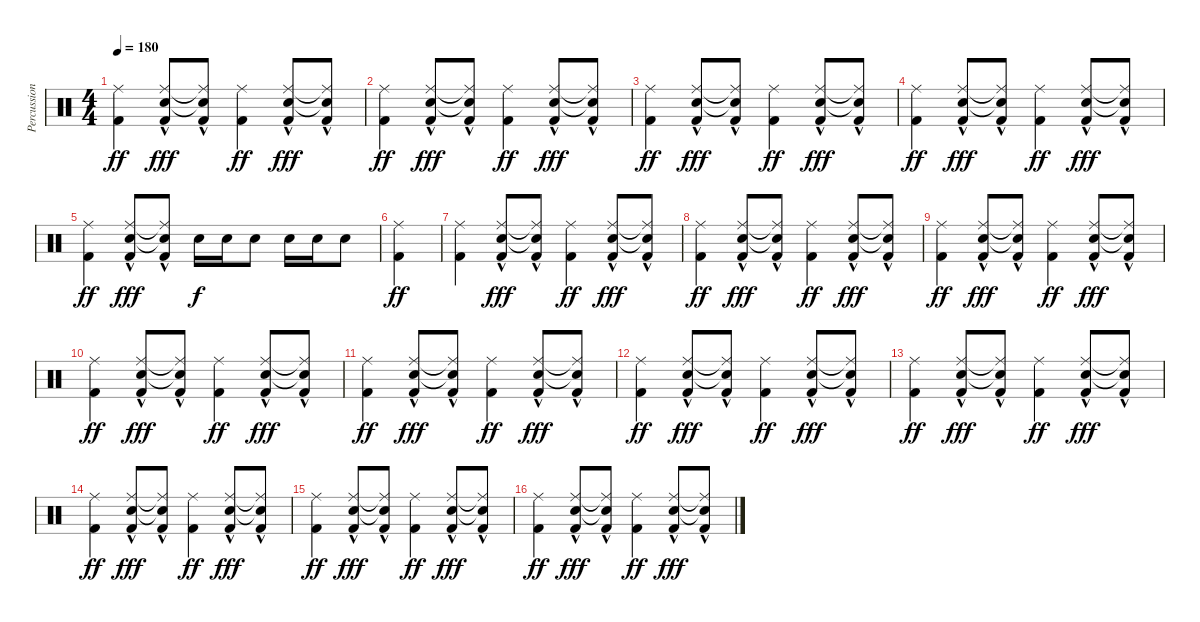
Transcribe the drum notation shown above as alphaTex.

\track ("Percussion" "Percussion") {instrument percussion}
\staff {score}
\articulation defaults
\ts (4 4)
\tempo 180
\clef neutral
\ks c
("Kick (hit) 2" "Ride (middle)").4{dy ff} ("Electric Snare (hit)" "Ride (middle)" "Kick (hit) 2"{hac}).8{dy fff} ("Electric Snare (hit)"{t} "Ride (middle)"{t} "Kick (hit) 2"{hac}).8 ("Kick (hit) 2" "Ride (middle)").4{dy ff} ("Electric Snare (hit)" "Ride (middle)" "Kick (hit) 2"{hac}).8{dy fff} ("Electric Snare (hit)"{t} "Ride (middle)"{t} "Kick (hit) 2"{hac}).8 |
("Kick (hit) 2" "Ride (middle)").4{dy ff} ("Electric Snare (hit)" "Ride (middle)" "Kick (hit) 2"{hac}).8{dy fff} ("Electric Snare (hit)"{t} "Ride (middle)"{t} "Kick (hit) 2"{hac}).8 ("Kick (hit) 2" "Ride (middle)").4{dy ff} ("Electric Snare (hit)" "Ride (middle)" "Kick (hit) 2"{hac}).8{dy fff} ("Electric Snare (hit)"{t} "Ride (middle)"{t} "Kick (hit) 2"{hac}).8 |
("Kick (hit) 2" "Ride (middle)").4{dy ff} ("Electric Snare (hit)" "Ride (middle)" "Kick (hit) 2"{hac}).8{dy fff} ("Electric Snare (hit)"{t} "Ride (middle)"{t} "Kick (hit) 2"{hac}).8 ("Kick (hit) 2" "Ride (middle)").4{dy ff} ("Electric Snare (hit)" "Ride (middle)" "Kick (hit) 2"{hac}).8{dy fff} ("Electric Snare (hit)"{t} "Ride (middle)"{t} "Kick (hit) 2"{hac}).8 |
("Kick (hit) 2" "Ride (middle)").4{dy ff} ("Electric Snare (hit)" "Ride (middle)" "Kick (hit) 2"{hac}).8{dy fff} ("Electric Snare (hit)"{t} "Ride (middle)"{t} "Kick (hit) 2"{hac}).8 ("Kick (hit) 2" "Ride (middle)").4{dy ff} ("Electric Snare (hit)" "Ride (middle)" "Kick (hit) 2"{hac}).8{dy fff} ("Electric Snare (hit)"{t} "Ride (middle)"{t} "Kick (hit) 2"{hac}).8 |
("Kick (hit) 2" "Ride (middle)").4{dy ff} ("Electric Snare (hit)" "Ride (middle)" "Kick (hit) 2"{hac}).8{dy fff} ("Electric Snare (hit)"{t} "Ride (middle)"{t} "Kick (hit) 2"{hac}).8 "Electric Snare (hit)".16{dy f} "Electric Snare (hit)".16 "Electric Snare (hit)".8 "Electric Snare (hit)".16 "Electric Snare (hit)".16 "Electric Snare (hit)".8 |
("Kick (hit) 2" "Ride (middle)").4{dy ff} |
("Kick (hit) 2" "Ride (middle)").4 ("Electric Snare (hit)" "Ride (middle)" "Kick (hit) 2"{hac}).8{dy fff} ("Electric Snare (hit)"{t} "Ride (middle)"{t} "Kick (hit) 2"{hac}).8 ("Kick (hit) 2" "Ride (middle)").4{dy ff} ("Electric Snare (hit)" "Ride (middle)" "Kick (hit) 2"{hac}).8{dy fff} ("Electric Snare (hit)"{t} "Ride (middle)"{t} "Kick (hit) 2"{hac}).8 |
("Kick (hit) 2" "Ride (middle)").4{dy ff} ("Electric Snare (hit)" "Ride (middle)" "Kick (hit) 2"{hac}).8{dy fff} ("Electric Snare (hit)"{t} "Ride (middle)"{t} "Kick (hit) 2"{hac}).8 ("Kick (hit) 2" "Ride (middle)").4{dy ff} ("Electric Snare (hit)" "Ride (middle)" "Kick (hit) 2"{hac}).8{dy fff} ("Electric Snare (hit)"{t} "Ride (middle)"{t} "Kick (hit) 2"{hac}).8 |
("Kick (hit) 2" "Ride (middle)").4{dy ff} ("Electric Snare (hit)" "Ride (middle)" "Kick (hit) 2"{hac}).8{dy fff} ("Electric Snare (hit)"{t} "Ride (middle)"{t} "Kick (hit) 2"{hac}).8 ("Kick (hit) 2" "Ride (middle)").4{dy ff} ("Electric Snare (hit)" "Ride (middle)" "Kick (hit) 2"{hac}).8{dy fff} ("Electric Snare (hit)"{t} "Ride (middle)"{t} "Kick (hit) 2"{hac}).8 |
("Kick (hit) 2" "Ride (middle)").4{dy ff} ("Electric Snare (hit)" "Ride (middle)" "Kick (hit) 2"{hac}).8{dy fff} ("Electric Snare (hit)"{t} "Ride (middle)"{t} "Kick (hit) 2"{hac}).8 ("Kick (hit) 2" "Ride (middle)").4{dy ff} ("Electric Snare (hit)" "Ride (middle)" "Kick (hit) 2"{hac}).8{dy fff} ("Electric Snare (hit)"{t} "Ride (middle)"{t} "Kick (hit) 2"{hac}).8 |
("Kick (hit) 2" "Ride (middle)").4{dy ff} ("Electric Snare (hit)" "Ride (middle)" "Kick (hit) 2"{hac}).8{dy fff} ("Electric Snare (hit)"{t} "Ride (middle)"{t} "Kick (hit) 2"{hac}).8 ("Kick (hit) 2" "Ride (middle)").4{dy ff} ("Electric Snare (hit)" "Ride (middle)" "Kick (hit) 2"{hac}).8{dy fff} ("Electric Snare (hit)"{t} "Ride (middle)"{t} "Kick (hit) 2"{hac}).8 |
("Kick (hit) 2" "Ride (middle)").4{dy ff} ("Electric Snare (hit)" "Ride (middle)" "Kick (hit) 2"{hac}).8{dy fff} ("Electric Snare (hit)"{t} "Ride (middle)"{t} "Kick (hit) 2"{hac}).8 ("Kick (hit) 2" "Ride (middle)").4{dy ff} ("Electric Snare (hit)" "Ride (middle)" "Kick (hit) 2"{hac}).8{dy fff} ("Electric Snare (hit)"{t} "Ride (middle)"{t} "Kick (hit) 2"{hac}).8 |
("Kick (hit) 2" "Ride (middle)").4{dy ff} ("Electric Snare (hit)" "Ride (middle)" "Kick (hit) 2"{hac}).8{dy fff} ("Electric Snare (hit)"{t} "Ride (middle)"{t} "Kick (hit) 2"{hac}).8 ("Kick (hit) 2" "Ride (middle)").4{dy ff} ("Electric Snare (hit)" "Ride (middle)" "Kick (hit) 2"{hac}).8{dy fff} ("Electric Snare (hit)"{t} "Ride (middle)"{t} "Kick (hit) 2"{hac}).8 |
("Kick (hit) 2" "Ride (middle)").4{dy ff} ("Electric Snare (hit)" "Ride (middle)" "Kick (hit) 2"{hac}).8{dy fff} ("Electric Snare (hit)"{t} "Ride (middle)"{t} "Kick (hit) 2"{hac}).8 ("Kick (hit) 2" "Ride (middle)").4{dy ff} ("Electric Snare (hit)" "Ride (middle)" "Kick (hit) 2"{hac}).8{dy fff} ("Electric Snare (hit)"{t} "Ride (middle)"{t} "Kick (hit) 2"{hac}).8 |
("Kick (hit) 2" "Ride (middle)").4{dy ff} ("Electric Snare (hit)" "Ride (middle)" "Kick (hit) 2"{hac}).8{dy fff} ("Electric Snare (hit)"{t} "Ride (middle)"{t} "Kick (hit) 2"{hac}).8 ("Kick (hit) 2" "Ride (middle)").4{dy ff} ("Electric Snare (hit)" "Ride (middle)" "Kick (hit) 2"{hac}).8{dy fff} ("Electric Snare (hit)"{t} "Ride (middle)"{t} "Kick (hit) 2"{hac}).8 |
("Kick (hit) 2" "Ride (middle)").4{dy ff} ("Electric Snare (hit)" "Ride (middle)" "Kick (hit) 2"{hac}).8{dy fff} ("Electric Snare (hit)"{t} "Ride (middle)"{t} "Kick (hit) 2"{hac}).8 ("Kick (hit) 2" "Ride (middle)").4{dy ff} ("Electric Snare (hit)" "Ride (middle)" "Kick (hit) 2"{hac}).8{dy fff} ("Electric Snare (hit)"{t} "Ride (middle)"{t} "Kick (hit) 2"{hac}).8
